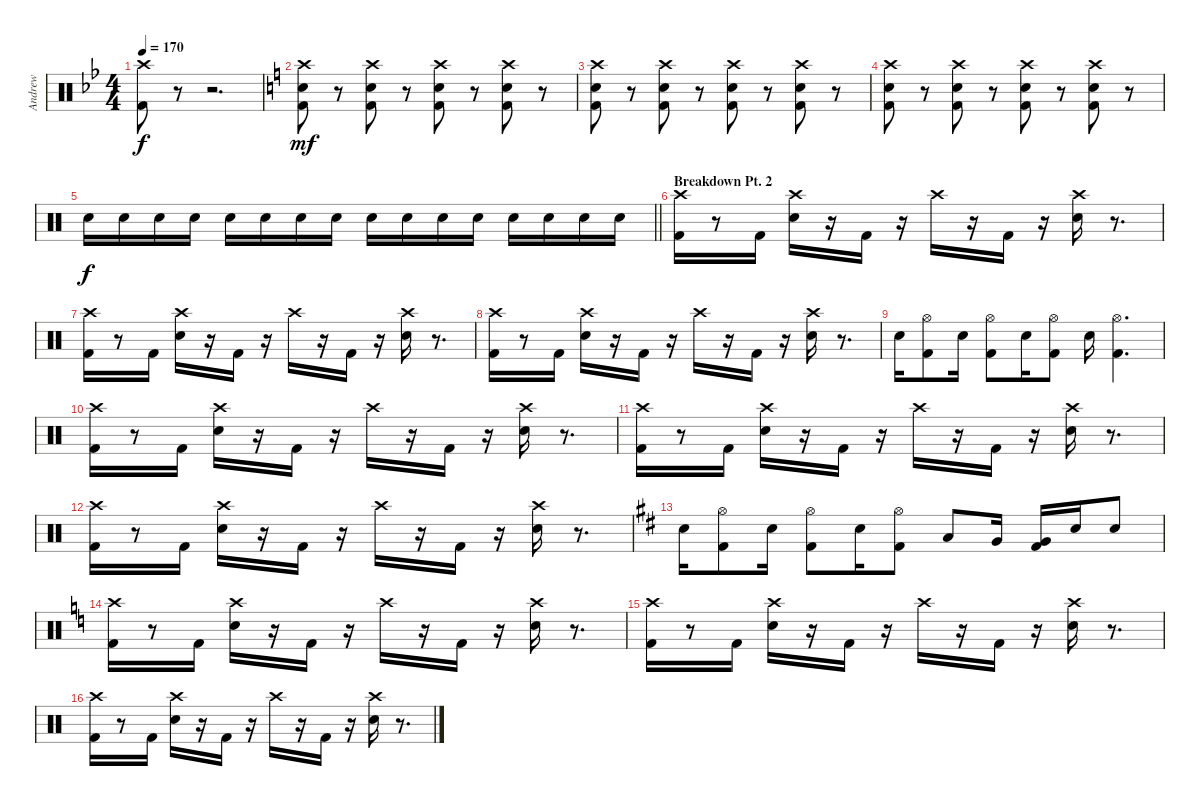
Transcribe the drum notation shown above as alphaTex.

\track ("Andrew" "Andrew") {instrument percussion}
\staff {score}
\articulation defaults
\ts (4 4)
\tempo 170
\clef neutral
\ks bb
("Crash high (hit)" "Kick (hit) 2").8{dy f} r.8 r.2{d} |
\ks c
("Electric Snare (hit)" "Crash high (hit)" "Kick (hit) 2").8{dy mf} r.8 ("Electric Snare (hit)" "Crash high (hit)" "Kick (hit) 2").8 r.8 ("Electric Snare (hit)" "Crash high (hit)" "Kick (hit) 2").8 r.8 ("Electric Snare (hit)" "Crash high (hit)" "Kick (hit) 2").8 r.8 |
("Electric Snare (hit)" "Crash high (hit)" "Kick (hit) 2").8 r.8 ("Electric Snare (hit)" "Crash high (hit)" "Kick (hit) 2").8 r.8 ("Electric Snare (hit)" "Crash high (hit)" "Kick (hit) 2").8 r.8 ("Electric Snare (hit)" "Crash high (hit)" "Kick (hit) 2").8 r.8 |
("Electric Snare (hit)" "Crash high (hit)" "Kick (hit) 2").8 r.8 ("Electric Snare (hit)" "Crash high (hit)" "Kick (hit) 2").8 r.8 ("Electric Snare (hit)" "Crash high (hit)" "Kick (hit) 2").8 r.8 ("Electric Snare (hit)" "Crash high (hit)" "Kick (hit) 2").8 r.8 |
\barLineRight lightlight "Electric Snare (hit)".16{dy f} "Electric Snare (hit)".16 "Electric Snare (hit)".16 "Electric Snare (hit)".16 "Electric Snare (hit)".16 "Electric Snare (hit)".16 "Electric Snare (hit)".16 "Electric Snare (hit)".16 "Electric Snare (hit)".16 "Electric Snare (hit)".16 "Electric Snare (hit)".16 "Electric Snare (hit)".16 "Electric Snare (hit)".16 "Electric Snare (hit)".16 "Electric Snare (hit)".16 "Electric Snare (hit)".16
|
\section ("" "Breakdown Pt. 2")
("Crash high (hit)" "Kick (hit) 2").16 r.8 "Kick (hit) 2".16 ("Crash high (hit)" "Electric Snare (hit)").16 r.16 "Kick (hit) 2".16 r.16 "Crash high (hit)".16 r.16 "Kick (hit) 2".16 r.16 ("Crash high (hit)" "Electric Snare (hit)").16 r.8{d} |
("Crash high (hit)" "Kick (hit) 2").16 r.8 "Kick (hit) 2".16 ("Crash high (hit)" "Electric Snare (hit)").16 r.16 "Kick (hit) 2".16 r.16 "Crash high (hit)".16 r.16 "Kick (hit) 2".16 r.16 ("Crash high (hit)" "Electric Snare (hit)").16 r.8{d} |
("Crash high (hit)" "Kick (hit) 2").16 r.8 "Kick (hit) 2".16 ("Crash high (hit)" "Electric Snare (hit)").16 r.16 "Kick (hit) 2".16 r.16 "Crash high (hit)".16 r.16 "Kick (hit) 2".16 r.16 ("Crash high (hit)" "Electric Snare (hit)").16 r.8{d} |
"Electric Snare (hit)".16 ("Hi-Hat (open)" "Kick (hit) 2").8 "Electric Snare (hit)".16 ("Hi-Hat (open)" "Kick (hit) 2").8 "Electric Snare (hit)".16 ("Hi-Hat (open)" "Kick (hit) 2").8 "Electric Snare (hit)".16 ("Hi-Hat (open)" "Kick (hit) 2").4{d} |
("Crash high (hit)" "Kick (hit) 2").16 r.8 "Kick (hit) 2".16 ("Crash high (hit)" "Electric Snare (hit)").16 r.16 "Kick (hit) 2".16 r.16 "Crash high (hit)".16 r.16 "Kick (hit) 2".16 r.16 ("Crash high (hit)" "Electric Snare (hit)").16 r.8{d} |
("Crash high (hit)" "Kick (hit) 2").16 r.8 "Kick (hit) 2".16 ("Crash high (hit)" "Electric Snare (hit)").16 r.16 "Kick (hit) 2".16 r.16 "Crash high (hit)".16 r.16 "Kick (hit) 2".16 r.16 ("Crash high (hit)" "Electric Snare (hit)").16 r.8{d} |
("Crash high (hit)" "Kick (hit) 2").16 r.8 "Kick (hit) 2".16 ("Crash high (hit)" "Electric Snare (hit)").16 r.16 "Kick (hit) 2".16 r.16 "Crash high (hit)".16 r.16 "Kick (hit) 2".16 r.16 ("Crash high (hit)" "Electric Snare (hit)").16 r.8{d} |
\ks d "Electric Snare (hit)".16
("Hi-Hat (open)" "Kick (hit) 2").8 "Electric Snare (hit)".16 ("Hi-Hat (open)" "Kick (hit) 2").8 "Electric Snare (hit)".16 ("Hi-Hat (open)" "Kick (hit) 2").8 "Low Tom (hit)".8 "Very Low Tom (hit)".16 ("Very Low Tom (hit)" "Kick (hit) 2").16 "Electric Snare (hit)".16 "Electric Snare (hit)".8 |
\ks c
("Crash high (hit)" "Kick (hit) 2").16 r.8 "Kick (hit) 2".16 ("Crash high (hit)" "Electric Snare (hit)").16 r.16 "Kick (hit) 2".16 r.16 "Crash high (hit)".16 r.16 "Kick (hit) 2".16 r.16 ("Crash high (hit)" "Electric Snare (hit)").16 r.8{d} |
("Crash high (hit)" "Kick (hit) 2").16 r.8 "Kick (hit) 2".16 ("Crash high (hit)" "Electric Snare (hit)").16 r.16 "Kick (hit) 2".16 r.16 "Crash high (hit)".16 r.16 "Kick (hit) 2".16 r.16 ("Crash high (hit)" "Electric Snare (hit)").16 r.8{d} |
("Crash high (hit)" "Kick (hit) 2").16 r.8 "Kick (hit) 2".16 ("Crash high (hit)" "Electric Snare (hit)").16 r.16 "Kick (hit) 2".16 r.16 "Crash high (hit)".16 r.16 "Kick (hit) 2".16 r.16 ("Crash high (hit)" "Electric Snare (hit)").16 r.8{d}
